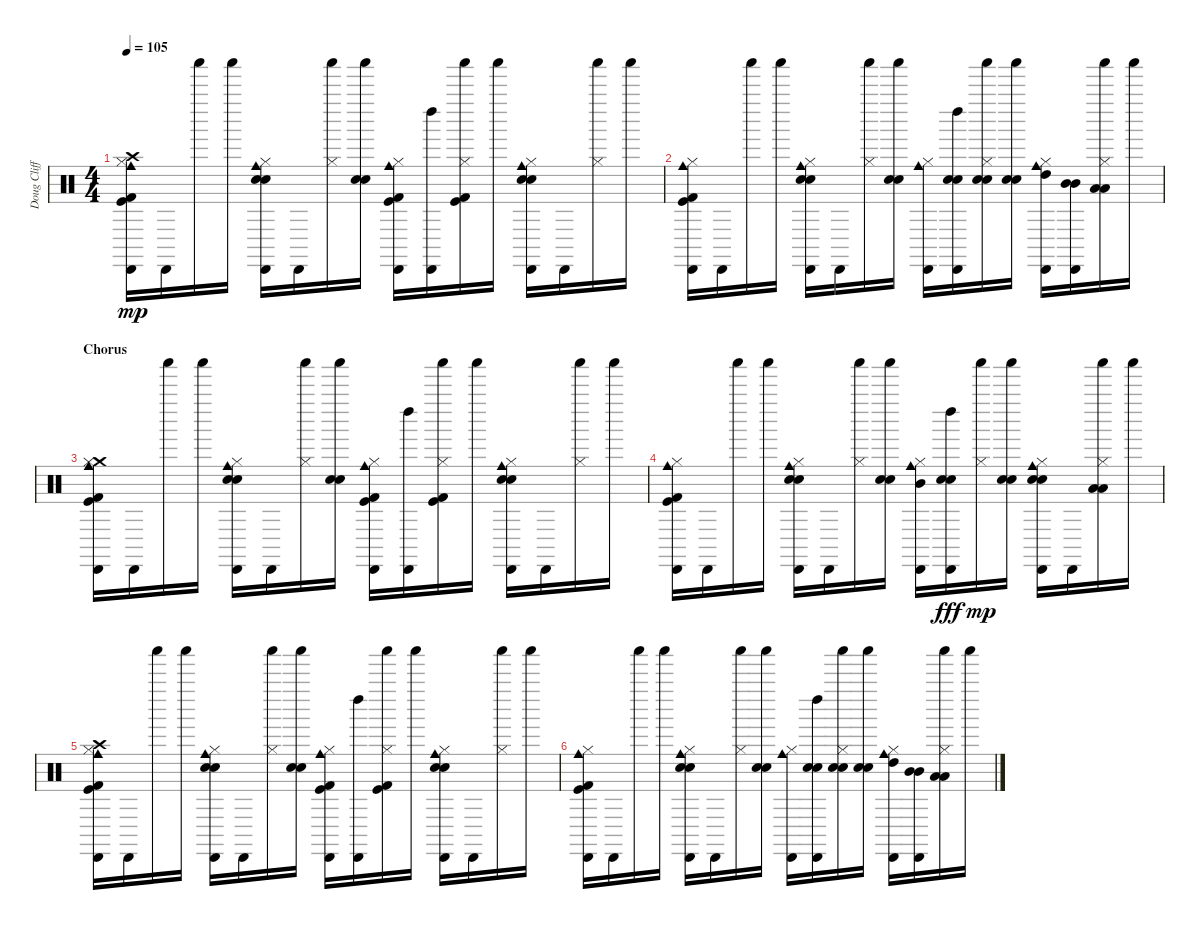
\track ("Doug Clifford" "Doug Cliff") {instrument percussion}
\staff {score}
\articulation defaults
\ts (4 4)
\tempo 105
\clef neutral
\ks c
("Kick (hit) 2" "Crash high (hit)" "Kick (hit)" "Cabasa (hit)" "Cowbell medium (hit)" "Hi-Hat (closed)").16{dy mp volume 8} "Cabasa (hit)".16 "Shaker (hit)".16 "Shaker (hit)".16 ("Snare (hit) 2" "Cowbell medium (hit)" "Electric Snare (hit)" "Cabasa (hit)" "Hi-Hat (closed)").16 "Cabasa (hit)".16 ("Shaker (hit)" "Hi-Hat (closed)").16 ("Snare (hit) 2" "Electric Snare (hit)" "Shaker (hit)").16 ("Kick (hit) 2" "Kick (hit)" "Cowbell medium (hit)" "Hi-Hat (closed)" "Cabasa (hit)").16 ("Left Maraca (hit)" "Cabasa (hit)").16 ("Kick (hit) 2" "Kick (hit)" "Hi-Hat (closed)" "Shaker (hit)").16 "Shaker (hit)".16 ("Snare (hit) 2" "Cabasa (hit)" "Electric Snare (hit)" "Cowbell medium (hit)" "Hi-Hat (closed)").16 "Cabasa (hit)".16 ("Shaker (hit)" "Hi-Hat (closed)").16 "Shaker (hit)".16 |
("Kick (hit) 2" "Cabasa (hit)" "Kick (hit)" "Cowbell medium (hit)" "Hi-Hat (closed)").16 "Cabasa (hit)".16 "Shaker (hit)".16 "Shaker (hit)".16 ("Snare (hit) 2" "Cabasa (hit)" "Electric Snare (hit)" "Cowbell medium (hit)" "Hi-Hat (closed)").16 "Cabasa (hit)".16 ("Shaker (hit)" "Hi-Hat (closed)").16 ("Snare (hit) 2" "Electric Snare (hit)" "Shaker (hit)").16 ("Cabasa (hit)" "Hi-Hat (closed)" "Cowbell medium (hit)").16 ("Snare (hit) 2" "Left Maraca (hit)" "Electric Snare (hit)" "Cabasa (hit)").16 ("Snare (hit) 2" "Electric Snare (hit)" "Shaker (hit)" "Hi-Hat (closed)").16 ("Snare (hit) 2" "Electric Snare (hit)" "Shaker (hit)").16 ("High Tom (hit)" "Cabasa (hit)" "Hi-Hat (closed)" "Cowbell medium (hit)").16 ("Mid Tom (hit)" "Mid Tom (hit)" "Cabasa (hit)").16 ("Low Tom (hit)" "Low Tom (hit)" "Hi-Hat (closed)" "Shaker (hit)").16 "Shaker (hit)".16 |
\section ("" "Chorus")
("Kick (hit) 2" "Crash medium (hit)" "Cowbell medium (hit)" "Cabasa (hit)" "Kick (hit)" "Hi-Hat (closed)").16{volume 6} "Cabasa (hit)".16 "Shaker (hit)".16 "Shaker (hit)".16 ("Snare (hit) 2" "Electric Snare (hit)" "Cabasa (hit)" "Cowbell medium (hit)" "Hi-Hat (closed)").16 "Cabasa (hit)".16 ("Shaker (hit)" "Hi-Hat (closed)").16 ("Snare (hit) 2" "Electric Snare (hit)" "Shaker (hit)").16 ("Kick (hit) 2" "Cabasa (hit)" "Cowbell medium (hit)" "Hi-Hat (closed)" "Kick (hit)").16 ("Left Maraca (hit)" "Cabasa (hit)").16 ("Kick (hit) 2" "Kick (hit)" "Hi-Hat (closed)" "Shaker (hit)").16 "Shaker (hit)".16 ("Snare (hit) 2" "Cabasa (hit)" "Electric Snare (hit)" "Cowbell medium (hit)" "Hi-Hat (closed)").16 "Cabasa (hit)".16 ("Hi-Hat (closed)" "Shaker (hit)").16 "Shaker (hit)".16 |
("Kick (hit) 2" "Cowbell medium (hit)" "Kick (hit)" "Cabasa (hit)" "Hi-Hat (closed)").16 "Cabasa (hit)".16 "Shaker (hit)".16 "Shaker (hit)".16 ("Snare (hit) 2" "Electric Snare (hit)" "Hi-Hat (closed)" "Cowbell medium (hit)" "Cabasa (hit)").16 "Cabasa (hit)".16 ("Hi-Hat (closed)" "Shaker (hit)").16 ("Snare (hit) 2" "Electric Snare (hit)" "Shaker (hit)").16 ("Mid Tom (hit)" "Cabasa (hit)" "Cowbell medium (hit)" "Hi-Hat (closed)").16 ("Left Maraca (hit)" "Electric Snare (hit)" "Cabasa (hit)" "Snare (hit) 2").16{dy fff} ("Shaker (hit)" "Hi-Hat (closed)").16{dy mp} ("Snare (hit) 2" "Shaker (hit)" "Electric Snare (hit)").16 ("Snare (hit) 2" "Hi-Hat (closed)" "Cowbell medium (hit)" "Electric Snare (hit)" "Cabasa (hit)").16 "Cabasa (hit)".16 ("Low Tom (hit)" "Hi-Hat (closed)" "Shaker (hit)" "Low Tom (hit)").16 "Shaker (hit)".16 |
("Kick (hit) 2" "Crash high (hit)" "Cowbell medium (hit)" "Kick (hit)" "Cabasa (hit)" "Hi-Hat (closed)").16{volume 4} "Cabasa (hit)".16 "Shaker (hit)".16 "Shaker (hit)".16 ("Snare (hit) 2" "Electric Snare (hit)" "Cabasa (hit)" "Cowbell medium (hit)" "Hi-Hat (closed)").16 "Cabasa (hit)".16 ("Shaker (hit)" "Hi-Hat (closed)").16 ("Snare (hit) 2" "Shaker (hit)" "Electric Snare (hit)").16 ("Kick (hit) 2" "Cowbell medium (hit)" "Hi-Hat (closed)" "Cabasa (hit)" "Kick (hit)").16 ("Left Maraca (hit)" "Cabasa (hit)").16 ("Kick (hit) 2" "Shaker (hit)" "Hi-Hat (closed)" "Kick (hit)").16 "Shaker (hit)".16 ("Snare (hit) 2" "Cabasa (hit)" "Cowbell medium (hit)" "Electric Snare (hit)" "Hi-Hat (closed)").16 "Cabasa (hit)".16 ("Hi-Hat (closed)" "Shaker (hit)").16 "Shaker (hit)".16 |
("Kick (hit) 2" "Kick (hit)" "Cabasa (hit)" "Hi-Hat (closed)" "Cowbell medium (hit)").16{volume 3} "Cabasa (hit)".16 "Shaker (hit)".16 "Shaker (hit)".16 ("Snare (hit) 2" "Electric Snare (hit)" "Cabasa (hit)" "Hi-Hat (closed)" "Cowbell medium (hit)").16 "Cabasa (hit)".16 ("Hi-Hat (closed)" "Shaker (hit)").16 ("Snare (hit) 2" "Electric Snare (hit)" "Shaker (hit)").16 ("Hi-Hat (closed)" "Cowbell medium (hit)" "Cabasa (hit)").16 ("Snare (hit) 2" "Left Maraca (hit)" "Electric Snare (hit)" "Cabasa (hit)").16 ("Snare (hit) 2" "Electric Snare (hit)" "Hi-Hat (closed)" "Shaker (hit)").16 ("Snare (hit) 2" "Electric Snare (hit)" "Shaker (hit)").16 ("Cabasa (hit)" "High Tom (hit)" "Hi-Hat (closed)" "Cowbell medium (hit)").16 ("Mid Tom (hit)" "Cabasa (hit)" "Mid Tom (hit)").16 ("Low Tom (hit)" "Hi-Hat (closed)" "Low Tom (hit)" "Shaker (hit)").16 "Shaker (hit)".16
